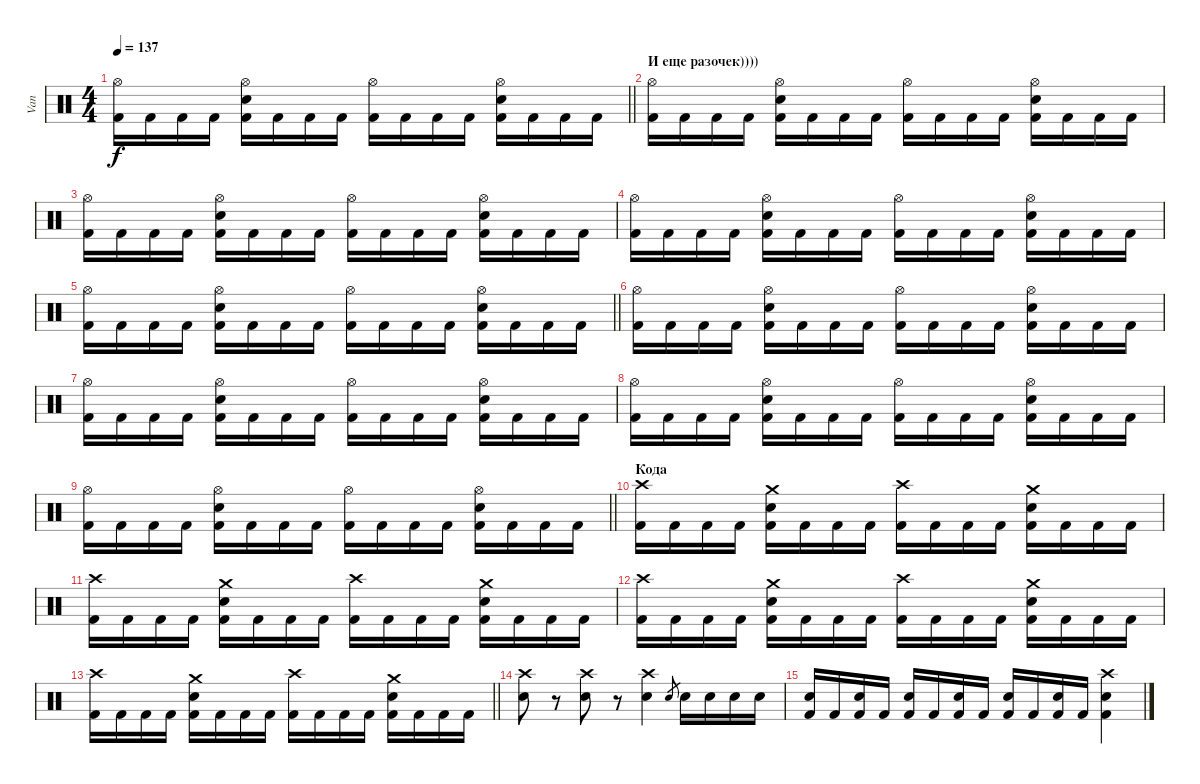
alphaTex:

\track ("Van" "Van") {instrument percussion}
\staff {score}
\articulation defaults
\ts (4 4)
\tempo 137
\clef neutral
\barLineRight lightlight
\ks c
("Hi-Hat (open)" "Kick (hit) 2").16{dy f} "Kick (hit) 2".16 "Kick (hit) 2".16 "Kick (hit) 2".16 ("Hi-Hat (open)" "Electric Snare (hit)" "Kick (hit) 2").16 "Kick (hit) 2".16 "Kick (hit) 2".16 "Kick (hit) 2".16 ("Hi-Hat (open)" "Kick (hit) 2").16 "Kick (hit) 2".16 "Kick (hit) 2".16 "Kick (hit) 2".16 ("Hi-Hat (open)" "Electric Snare (hit)" "Kick (hit) 2").16 "Kick (hit) 2".16 "Kick (hit) 2".16 "Kick (hit) 2".16 |
\section ("" "И еще разочек))))")
("Hi-Hat (open)" "Kick (hit) 2").16 "Kick (hit) 2".16 "Kick (hit) 2".16 "Kick (hit) 2".16 ("Hi-Hat (open)" "Electric Snare (hit)" "Kick (hit) 2").16 "Kick (hit) 2".16 "Kick (hit) 2".16 "Kick (hit) 2".16 ("Hi-Hat (open)" "Kick (hit) 2").16 "Kick (hit) 2".16 "Kick (hit) 2".16 "Kick (hit) 2".16 ("Hi-Hat (open)" "Electric Snare (hit)" "Kick (hit) 2").16 "Kick (hit) 2".16 "Kick (hit) 2".16 "Kick (hit) 2".16 |
("Hi-Hat (open)" "Kick (hit) 2").16 "Kick (hit) 2".16 "Kick (hit) 2".16 "Kick (hit) 2".16 ("Hi-Hat (open)" "Electric Snare (hit)" "Kick (hit) 2").16 "Kick (hit) 2".16 "Kick (hit) 2".16 "Kick (hit) 2".16 ("Hi-Hat (open)" "Kick (hit) 2").16 "Kick (hit) 2".16 "Kick (hit) 2".16 "Kick (hit) 2".16 ("Hi-Hat (open)" "Electric Snare (hit)" "Kick (hit) 2").16 "Kick (hit) 2".16 "Kick (hit) 2".16 "Kick (hit) 2".16 |
("Hi-Hat (open)" "Kick (hit) 2").16 "Kick (hit) 2".16 "Kick (hit) 2".16 "Kick (hit) 2".16 ("Hi-Hat (open)" "Electric Snare (hit)" "Kick (hit) 2").16 "Kick (hit) 2".16 "Kick (hit) 2".16 "Kick (hit) 2".16 ("Hi-Hat (open)" "Kick (hit) 2").16 "Kick (hit) 2".16 "Kick (hit) 2".16 "Kick (hit) 2".16 ("Hi-Hat (open)" "Electric Snare (hit)" "Kick (hit) 2").16 "Kick (hit) 2".16 "Kick (hit) 2".16 "Kick (hit) 2".16 |
\barLineRight lightlight
("Hi-Hat (open)" "Kick (hit) 2").16 "Kick (hit) 2".16 "Kick (hit) 2".16 "Kick (hit) 2".16 ("Hi-Hat (open)" "Electric Snare (hit)" "Kick (hit) 2").16 "Kick (hit) 2".16 "Kick (hit) 2".16 "Kick (hit) 2".16 ("Hi-Hat (open)" "Kick (hit) 2").16 "Kick (hit) 2".16 "Kick (hit) 2".16 "Kick (hit) 2".16 ("Hi-Hat (open)" "Electric Snare (hit)" "Kick (hit) 2").16 "Kick (hit) 2".16 "Kick (hit) 2".16 "Kick (hit) 2".16 |
("Hi-Hat (open)" "Kick (hit) 2").16 "Kick (hit) 2".16 "Kick (hit) 2".16 "Kick (hit) 2".16 ("Hi-Hat (open)" "Electric Snare (hit)" "Kick (hit) 2").16 "Kick (hit) 2".16 "Kick (hit) 2".16 "Kick (hit) 2".16 ("Hi-Hat (open)" "Kick (hit) 2").16 "Kick (hit) 2".16 "Kick (hit) 2".16 "Kick (hit) 2".16 ("Hi-Hat (open)" "Electric Snare (hit)" "Kick (hit) 2").16 "Kick (hit) 2".16 "Kick (hit) 2".16 "Kick (hit) 2".16 |
("Hi-Hat (open)" "Kick (hit) 2").16 "Kick (hit) 2".16 "Kick (hit) 2".16 "Kick (hit) 2".16 ("Hi-Hat (open)" "Electric Snare (hit)" "Kick (hit) 2").16 "Kick (hit) 2".16 "Kick (hit) 2".16 "Kick (hit) 2".16 ("Hi-Hat (open)" "Kick (hit) 2").16 "Kick (hit) 2".16 "Kick (hit) 2".16 "Kick (hit) 2".16 ("Hi-Hat (open)" "Electric Snare (hit)" "Kick (hit) 2").16 "Kick (hit) 2".16 "Kick (hit) 2".16 "Kick (hit) 2".16 |
("Hi-Hat (open)" "Kick (hit) 2").16 "Kick (hit) 2".16 "Kick (hit) 2".16 "Kick (hit) 2".16 ("Hi-Hat (open)" "Electric Snare (hit)" "Kick (hit) 2").16 "Kick (hit) 2".16 "Kick (hit) 2".16 "Kick (hit) 2".16 ("Hi-Hat (open)" "Kick (hit) 2").16 "Kick (hit) 2".16 "Kick (hit) 2".16 "Kick (hit) 2".16 ("Hi-Hat (open)" "Electric Snare (hit)" "Kick (hit) 2").16 "Kick (hit) 2".16 "Kick (hit) 2".16 "Kick (hit) 2".16 |
\barLineRight lightlight
("Hi-Hat (open)" "Kick (hit) 2").16 "Kick (hit) 2".16 "Kick (hit) 2".16 "Kick (hit) 2".16 ("Hi-Hat (open)" "Electric Snare (hit)" "Kick (hit) 2").16 "Kick (hit) 2".16 "Kick (hit) 2".16 "Kick (hit) 2".16 ("Hi-Hat (open)" "Kick (hit) 2").16 "Kick (hit) 2".16 "Kick (hit) 2".16 "Kick (hit) 2".16 ("Hi-Hat (open)" "Electric Snare (hit)" "Kick (hit) 2").16 "Kick (hit) 2".16 "Kick (hit) 2".16 "Kick (hit) 2".16 |
\section ("" "Кода")
("Crash high (hit)" "Kick (hit) 2").16 "Kick (hit) 2".16 "Kick (hit) 2".16 "Kick (hit) 2".16 ("Crash medium (hit)" "Electric Snare (hit)" "Kick (hit) 2").16 "Kick (hit) 2".16 "Kick (hit) 2".16 "Kick (hit) 2".16 ("Crash high (hit)" "Kick (hit) 2").16 "Kick (hit) 2".16 "Kick (hit) 2".16 "Kick (hit) 2".16 ("Crash medium (hit)" "Electric Snare (hit)" "Kick (hit) 2").16 "Kick (hit) 2".16 "Kick (hit) 2".16 "Kick (hit) 2".16 |
("Crash high (hit)" "Kick (hit) 2").16 "Kick (hit) 2".16 "Kick (hit) 2".16 "Kick (hit) 2".16 ("Crash medium (hit)" "Electric Snare (hit)" "Kick (hit) 2").16 "Kick (hit) 2".16 "Kick (hit) 2".16 "Kick (hit) 2".16 ("Crash high (hit)" "Kick (hit) 2").16 "Kick (hit) 2".16 "Kick (hit) 2".16 "Kick (hit) 2".16 ("Crash medium (hit)" "Electric Snare (hit)" "Kick (hit) 2").16 "Kick (hit) 2".16 "Kick (hit) 2".16 "Kick (hit) 2".16 |
("Crash high (hit)" "Kick (hit) 2").16 "Kick (hit) 2".16 "Kick (hit) 2".16 "Kick (hit) 2".16 ("Crash medium (hit)" "Electric Snare (hit)" "Kick (hit) 2").16 "Kick (hit) 2".16 "Kick (hit) 2".16 "Kick (hit) 2".16 ("Crash high (hit)" "Kick (hit) 2").16 "Kick (hit) 2".16 "Kick (hit) 2".16 "Kick (hit) 2".16 ("Crash medium (hit)" "Electric Snare (hit)" "Kick (hit) 2").16 "Kick (hit) 2".16 "Kick (hit) 2".16 "Kick (hit) 2".16 |
\barLineRight lightlight
("Crash high (hit)" "Kick (hit) 2").16 "Kick (hit) 2".16 "Kick (hit) 2".16 "Kick (hit) 2".16 ("Crash medium (hit)" "Electric Snare (hit)" "Kick (hit) 2").16 "Kick (hit) 2".16 "Kick (hit) 2".16 "Kick (hit) 2".16 ("Crash high (hit)" "Kick (hit) 2").16 "Kick (hit) 2".16 "Kick (hit) 2".16 "Kick (hit) 2".16 ("Crash medium (hit)" "Electric Snare (hit)" "Kick (hit) 2").16 "Kick (hit) 2".16 "Kick (hit) 2".16 "Kick (hit) 2".16 |
("Electric Snare (hit)" "Crash high (hit)").8 r.8 ("Electric Snare (hit)" "Crash high (hit)").8 r.8 ("Electric Snare (hit)" "Crash high (hit)").4 "Electric Snare (hit)".8{gr} "Electric Snare (hit)".16 "Electric Snare (hit)".16 "Electric Snare (hit)".16 "Electric Snare (hit)".16 |
("Kick (hit) 2" "Electric Snare (hit)").16 "Kick (hit) 2".16 ("Kick (hit) 2" "Electric Snare (hit)").16 "Kick (hit) 2".16 ("Kick (hit) 2" "Electric Snare (hit)").16 "Kick (hit) 2".16 ("Kick (hit) 2" "Electric Snare (hit)").16 "Kick (hit) 2".16 ("Kick (hit) 2" "Electric Snare (hit)").16 "Kick (hit) 2".16 ("Kick (hit) 2" "Electric Snare (hit)").16 "Kick (hit) 2".16 ("Crash high (hit)" "Electric Snare (hit)" "Kick (hit) 2").4
